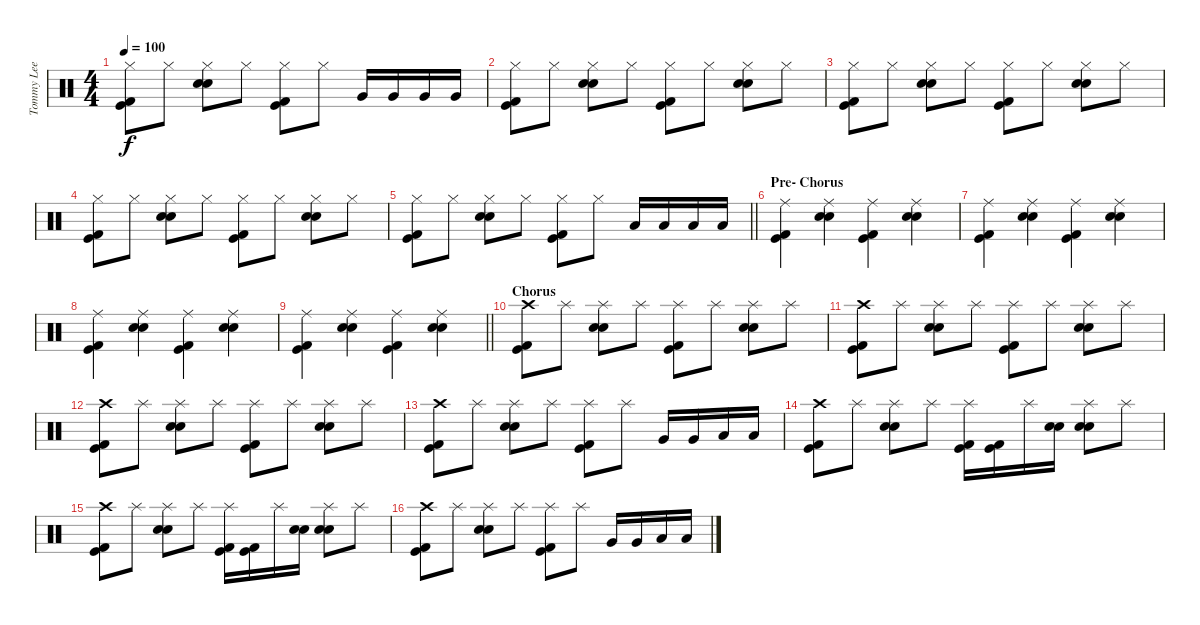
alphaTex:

\track ("Tommy Lee" "Tommy Lee") {instrument percussion}
\staff {score}
\articulation defaults
\ts (4 4)
\tempo 100
\clef neutral
\ks c
("Hi-Hat (closed)" "Kick (hit) 2" "Kick (hit)").8{dy f} "Hi-Hat (closed)".8 ("Hi-Hat (closed)" "Electric Snare (hit)" "Snare (hit) 2").8 "Hi-Hat (closed)".8 ("Hi-Hat (closed)" "Kick (hit) 2" "Kick (hit)").8 "Hi-Hat (closed)".8 "Very Low Tom (hit)".16 "Very Low Tom (hit)".16 "Very Low Tom (hit)".16 "Very Low Tom (hit)".16 |
("Hi-Hat (closed)" "Kick (hit) 2" "Kick (hit)").8 "Hi-Hat (closed)".8 ("Hi-Hat (closed)" "Electric Snare (hit)" "Snare (hit) 2").8 "Hi-Hat (closed)".8 ("Hi-Hat (closed)" "Kick (hit) 2" "Kick (hit)").8 "Hi-Hat (closed)".8 ("Hi-Hat (closed)" "Electric Snare (hit)" "Snare (hit) 2").8 "Hi-Hat (closed)".8 |
("Hi-Hat (closed)" "Kick (hit) 2" "Kick (hit)").8 "Hi-Hat (closed)".8 ("Hi-Hat (closed)" "Electric Snare (hit)" "Snare (hit) 2").8 "Hi-Hat (closed)".8 ("Hi-Hat (closed)" "Kick (hit) 2" "Kick (hit)").8 "Hi-Hat (closed)".8 ("Hi-Hat (closed)" "Electric Snare (hit)" "Snare (hit) 2").8 "Hi-Hat (closed)".8 |
("Hi-Hat (closed)" "Kick (hit) 2" "Kick (hit)").8 "Hi-Hat (closed)".8 ("Hi-Hat (closed)" "Electric Snare (hit)" "Snare (hit) 2").8 "Hi-Hat (closed)".8 ("Hi-Hat (closed)" "Kick (hit) 2" "Kick (hit)").8 "Hi-Hat (closed)".8 ("Hi-Hat (closed)" "Electric Snare (hit)" "Snare (hit) 2").8 "Hi-Hat (closed)".8 |
\barLineRight lightlight
("Hi-Hat (closed)" "Kick (hit) 2" "Kick (hit)").8 "Hi-Hat (closed)".8 ("Hi-Hat (closed)" "Electric Snare (hit)" "Snare (hit) 2").8 "Hi-Hat (closed)".8 ("Hi-Hat (closed)" "Kick (hit) 2" "Kick (hit)").8 "Hi-Hat (closed)".8 "Low Floor Tom (hit)".16 "Low Floor Tom (hit)".16 "Low Floor Tom (hit)".16 "Low Floor Tom (hit)".16 |
\section ("" "Pre- Chorus")
("Ride (middle)" "Kick (hit) 2" "Kick (hit)").4 ("Ride (middle)" "Electric Snare (hit)" "Snare (hit) 2").4 ("Ride (middle)" "Kick (hit) 2" "Kick (hit)").4 ("Ride (middle)" "Electric Snare (hit)" "Snare (hit) 2").4 |
("Ride (middle)" "Kick (hit) 2" "Kick (hit)").4 ("Ride (middle)" "Electric Snare (hit)" "Snare (hit) 2").4 ("Ride (middle)" "Kick (hit) 2" "Kick (hit)").4 ("Ride (middle)" "Electric Snare (hit)" "Snare (hit) 2").4 |
("Ride (middle)" "Kick (hit) 2" "Kick (hit)").4 ("Ride (middle)" "Electric Snare (hit)" "Snare (hit) 2").4 ("Ride (middle)" "Kick (hit) 2" "Kick (hit)").4 ("Ride (middle)" "Electric Snare (hit)" "Snare (hit) 2").4 |
\barLineRight lightlight
("Ride (middle)" "Kick (hit) 2" "Kick (hit)").4 ("Ride (middle)" "Electric Snare (hit)" "Snare (hit) 2").4 ("Ride (middle)" "Kick (hit) 2" "Kick (hit)").4 ("Ride (middle)" "Electric Snare (hit)" "Snare (hit) 2").4 |
\section ("" "Chorus")
("Crash high (hit)" "Kick (hit) 2" "Kick (hit)").8 "Splash (hit)".8 ("Splash (hit)" "Electric Snare (hit)" "Snare (hit) 2").8 "Splash (hit)".8 ("Splash (hit)" "Kick (hit) 2" "Kick (hit)").8 "Splash (hit)".8 ("Splash (hit)" "Electric Snare (hit)" "Snare (hit) 2").8 "Splash (hit)".8 |
("Crash high (hit)" "Kick (hit) 2" "Kick (hit)").8 "Splash (hit)".8 ("Splash (hit)" "Electric Snare (hit)" "Snare (hit) 2").8 "Splash (hit)".8 ("Splash (hit)" "Kick (hit) 2" "Kick (hit)").8 "Splash (hit)".8 ("Splash (hit)" "Electric Snare (hit)" "Snare (hit) 2").8 "Splash (hit)".8 |
("Crash high (hit)" "Kick (hit) 2" "Kick (hit)").8 "Splash (hit)".8 ("Splash (hit)" "Electric Snare (hit)" "Snare (hit) 2").8 "Splash (hit)".8 ("Splash (hit)" "Kick (hit) 2" "Kick (hit)").8 "Splash (hit)".8 ("Splash (hit)" "Electric Snare (hit)" "Snare (hit) 2").8 "Splash (hit)".8 |
("Crash high (hit)" "Kick (hit) 2" "Kick (hit)").8 "Splash (hit)".8 ("Splash (hit)" "Electric Snare (hit)" "Snare (hit) 2").8 "Splash (hit)".8 ("Splash (hit)" "Kick (hit) 2" "Kick (hit)").8 "Splash (hit)".8 "Very Low Tom (hit)".16 "Very Low Tom (hit)".16 "Low Floor Tom (hit)".16 "Low Floor Tom (hit)".16 |
("Crash high (hit)" "Kick (hit) 2" "Kick (hit)").8 "Splash (hit)".8 ("Splash (hit)" "Electric Snare (hit)" "Snare (hit) 2").8 "Splash (hit)".8 ("Splash (hit)" "Kick (hit) 2" "Kick (hit)").16 ("Kick (hit) 2" "Kick (hit)").16 "Splash (hit)".16 ("Electric Snare (hit)" "Snare (hit) 2").16 ("Splash (hit)" "Electric Snare (hit)" "Snare (hit) 2").8 "Splash (hit)".8 |
("Crash high (hit)" "Kick (hit) 2" "Kick (hit)").8 "Splash (hit)".8 ("Splash (hit)" "Electric Snare (hit)" "Snare (hit) 2").8 "Splash (hit)".8 ("Splash (hit)" "Kick (hit) 2" "Kick (hit)").16 ("Kick (hit) 2" "Kick (hit)").16 "Splash (hit)".16 ("Electric Snare (hit)" "Snare (hit) 2").16 ("Splash (hit)" "Electric Snare (hit)" "Snare (hit) 2").8 "Splash (hit)".8 |
("Crash high (hit)" "Kick (hit) 2" "Kick (hit)").8 "Splash (hit)".8 ("Splash (hit)" "Electric Snare (hit)" "Snare (hit) 2").8 "Splash (hit)".8 ("Splash (hit)" "Kick (hit) 2" "Kick (hit)").8 "Splash (hit)".8 "Very Low Tom (hit)".16 "Very Low Tom (hit)".16 "Low Floor Tom (hit)".16 "Low Floor Tom (hit)".16
